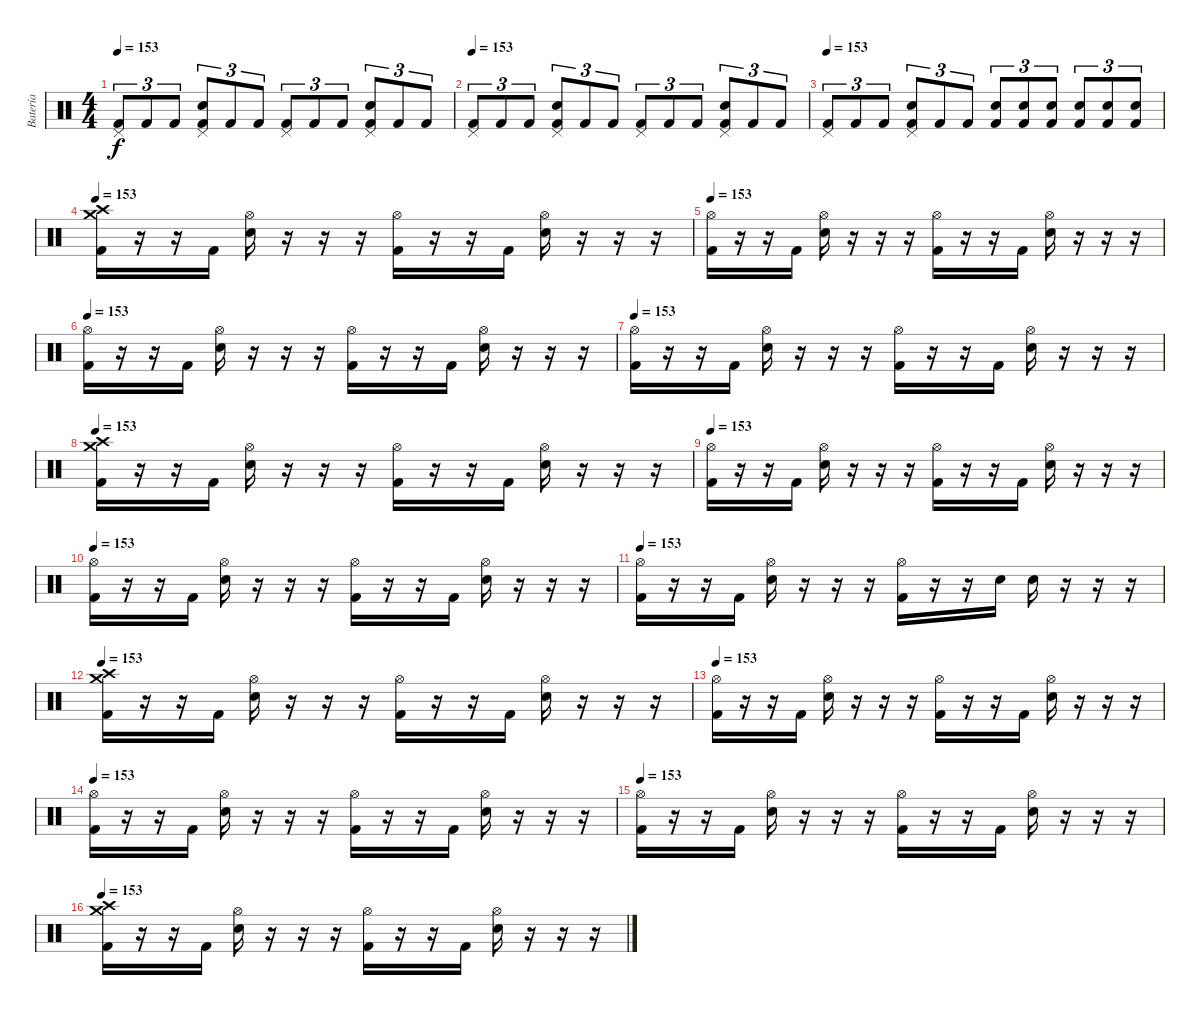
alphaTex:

\track ("Batería" "Batería") {instrument percussion}
\staff {score}
\articulation defaults
\ts (4 4)
\tempo 153
\clef neutral
\ks c
("Pedal Hi-Hat (hit)" "Kick (hit) 2").8{tu (3 2) dy f} "Kick (hit) 2".8{tu (3 2)} "Kick (hit) 2".8{tu (3 2)} ("Pedal Hi-Hat (hit)" "Kick (hit) 2" "Snare (hit) 2").8{tu (3 2)} "Kick (hit) 2".8{tu (3 2)} "Kick (hit) 2".8{tu (3 2)} ("Pedal Hi-Hat (hit)" "Kick (hit) 2").8{tu (3 2)} "Kick (hit) 2".8{tu (3 2)} "Kick (hit) 2".8{tu (3 2)} ("Pedal Hi-Hat (hit)" "Kick (hit) 2" "Snare (hit) 2").8{tu (3 2)} "Kick (hit) 2".8{tu (3 2)} "Kick (hit) 2".8{tu (3 2)} |
\tempo 153
("Pedal Hi-Hat (hit)" "Kick (hit) 2").8{tu (3 2)} "Kick (hit) 2".8{tu (3 2)} "Kick (hit) 2".8{tu (3 2)} ("Pedal Hi-Hat (hit)" "Kick (hit) 2" "Snare (hit) 2").8{tu (3 2)} "Kick (hit) 2".8{tu (3 2)} "Kick (hit) 2".8{tu (3 2)} ("Pedal Hi-Hat (hit)" "Kick (hit) 2").8{tu (3 2)} "Kick (hit) 2".8{tu (3 2)} "Kick (hit) 2".8{tu (3 2)} ("Pedal Hi-Hat (hit)" "Kick (hit) 2" "Snare (hit) 2").8{tu (3 2)} "Kick (hit) 2".8{tu (3 2)} "Kick (hit) 2".8{tu (3 2)} |
\tempo 153
("Pedal Hi-Hat (hit)" "Kick (hit) 2").8{tu (3 2)} "Kick (hit) 2".8{tu (3 2)} "Kick (hit) 2".8{tu (3 2)} ("Pedal Hi-Hat (hit)" "Kick (hit) 2" "Snare (hit) 2").8{tu (3 2)} "Kick (hit) 2".8{tu (3 2)} "Kick (hit) 2".8{tu (3 2)} ("Kick (hit) 2" "Snare (hit) 2").8{tu (3 2)} ("Kick (hit) 2" "Snare (hit) 2").8{tu (3 2)} ("Kick (hit) 2" "Snare (hit) 2").8{tu (3 2)} ("Kick (hit) 2" "Snare (hit) 2").8{tu (3 2)} ("Kick (hit) 2" "Snare (hit) 2").8{tu (3 2)} ("Kick (hit) 2" "Snare (hit) 2").8{tu (3 2)} |
\tempo 153
("Crash medium (hit)" "Crash high (hit)" "Kick (hit) 2").16 r.16 r.16 "Kick (hit) 2".16 ("Hi-Hat (open)" "Snare (hit) 2").16 r.16 r.16 r.16 ("Hi-Hat (open)" "Kick (hit) 2").16 r.16 r.16 "Kick (hit) 2".16 ("Hi-Hat (open)" "Snare (hit) 2").16 r.16 r.16 r.16 |
\tempo 153
("Hi-Hat (open)" "Kick (hit) 2").16 r.16 r.16 "Kick (hit) 2".16 ("Hi-Hat (open)" "Snare (hit) 2").16 r.16 r.16 r.16 ("Hi-Hat (open)" "Kick (hit) 2").16 r.16 r.16 "Kick (hit) 2".16 ("Hi-Hat (open)" "Snare (hit) 2").16 r.16 r.16 r.16 |
\tempo 153
("Hi-Hat (open)" "Kick (hit) 2").16 r.16 r.16 "Kick (hit) 2".16 ("Hi-Hat (open)" "Snare (hit) 2").16 r.16 r.16 r.16 ("Hi-Hat (open)" "Kick (hit) 2").16 r.16 r.16 "Kick (hit) 2".16 ("Hi-Hat (open)" "Snare (hit) 2").16 r.16 r.16 r.16 |
\tempo 153
("Hi-Hat (open)" "Kick (hit) 2").16 r.16 r.16 "Kick (hit) 2".16 ("Hi-Hat (open)" "Snare (hit) 2").16 r.16 r.16 r.16 ("Hi-Hat (open)" "Kick (hit) 2").16 r.16 r.16 "Kick (hit) 2".16 ("Hi-Hat (open)" "Snare (hit) 2").16 r.16 r.16 r.16 |
\tempo 153
("Crash medium (hit)" "Crash high (hit)" "Kick (hit) 2").16 r.16 r.16 "Kick (hit) 2".16 ("Hi-Hat (open)" "Snare (hit) 2").16 r.16 r.16 r.16 ("Hi-Hat (open)" "Kick (hit) 2").16 r.16 r.16 "Kick (hit) 2".16 ("Hi-Hat (open)" "Snare (hit) 2").16 r.16 r.16 r.16 |
\tempo 153
("Hi-Hat (open)" "Kick (hit) 2").16 r.16 r.16 "Kick (hit) 2".16 ("Hi-Hat (open)" "Snare (hit) 2").16 r.16 r.16 r.16 ("Hi-Hat (open)" "Kick (hit) 2").16 r.16 r.16 "Kick (hit) 2".16 ("Hi-Hat (open)" "Snare (hit) 2").16 r.16 r.16 r.16 |
\tempo 153
("Hi-Hat (open)" "Kick (hit) 2").16 r.16 r.16 "Kick (hit) 2".16 ("Hi-Hat (open)" "Snare (hit) 2").16 r.16 r.16 r.16 ("Hi-Hat (open)" "Kick (hit) 2").16 r.16 r.16 "Kick (hit) 2".16 ("Hi-Hat (open)" "Snare (hit) 2").16 r.16 r.16 r.16 |
\tempo 153
("Hi-Hat (open)" "Kick (hit) 2").16 r.16 r.16 "Kick (hit) 2".16 ("Hi-Hat (open)" "Snare (hit) 2").16 r.16 r.16 r.16 ("Hi-Hat (open)" "Kick (hit) 2").16 r.16 r.16 "Snare (hit) 2".16 "Snare (hit) 2".16 r.16 r.16 r.16 |
\tempo 153
("Crash medium (hit)" "Crash high (hit)" "Kick (hit) 2").16 r.16 r.16 "Kick (hit) 2".16 ("Hi-Hat (open)" "Snare (hit) 2").16 r.16 r.16 r.16 ("Hi-Hat (open)" "Kick (hit) 2").16 r.16 r.16 "Kick (hit) 2".16 ("Hi-Hat (open)" "Snare (hit) 2").16 r.16 r.16 r.16 |
\tempo 153
("Hi-Hat (open)" "Kick (hit) 2").16 r.16 r.16 "Kick (hit) 2".16 ("Hi-Hat (open)" "Snare (hit) 2").16 r.16 r.16 r.16 ("Hi-Hat (open)" "Kick (hit) 2").16 r.16 r.16 "Kick (hit) 2".16 ("Hi-Hat (open)" "Snare (hit) 2").16 r.16 r.16 r.16 |
\tempo 153
("Hi-Hat (open)" "Kick (hit) 2").16 r.16 r.16 "Kick (hit) 2".16 ("Hi-Hat (open)" "Snare (hit) 2").16 r.16 r.16 r.16 ("Hi-Hat (open)" "Kick (hit) 2").16 r.16 r.16 "Kick (hit) 2".16 ("Hi-Hat (open)" "Snare (hit) 2").16 r.16 r.16 r.16 |
\tempo 153
("Hi-Hat (open)" "Kick (hit) 2").16 r.16 r.16 "Kick (hit) 2".16 ("Hi-Hat (open)" "Snare (hit) 2").16 r.16 r.16 r.16 ("Hi-Hat (open)" "Kick (hit) 2").16 r.16 r.16 "Kick (hit) 2".16 ("Hi-Hat (open)" "Snare (hit) 2").16 r.16 r.16 r.16 |
\tempo 153
("Crash medium (hit)" "Crash high (hit)" "Kick (hit) 2").16 r.16 r.16 "Kick (hit) 2".16 ("Hi-Hat (open)" "Snare (hit) 2").16 r.16 r.16 r.16 ("Hi-Hat (open)" "Kick (hit) 2").16 r.16 r.16 "Kick (hit) 2".16 ("Hi-Hat (open)" "Snare (hit) 2").16 r.16 r.16 r.16
